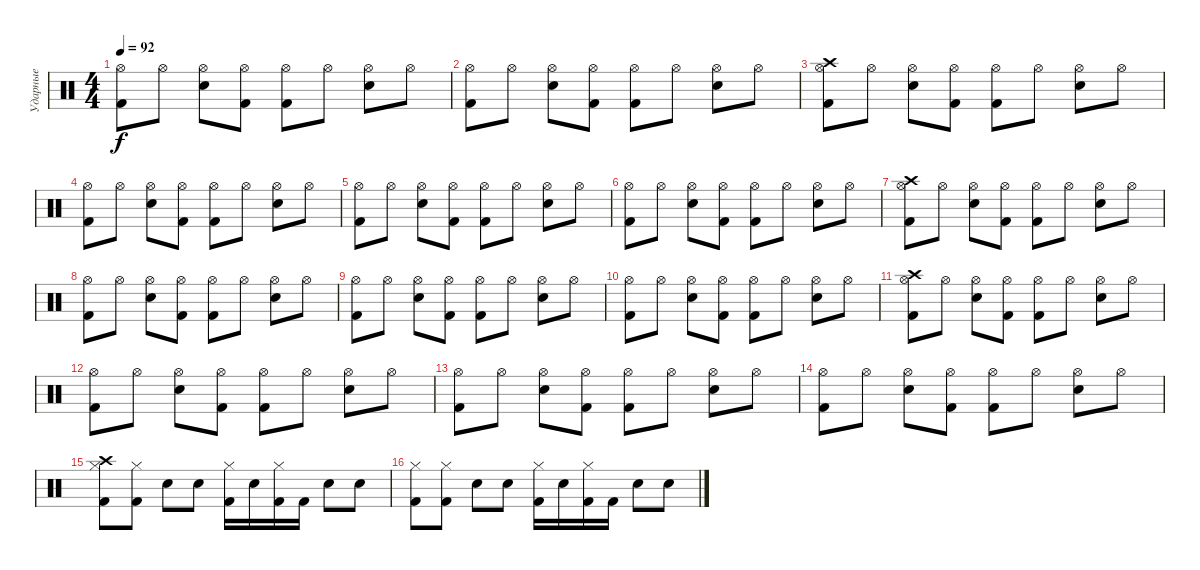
\track ("Ударные" "Ударные") {instrument percussion}
\staff {score}
\articulation defaults
\ts (4 4)
\tempo 92
\clef neutral
\ks c
("Kick (hit) 2" "Hi-Hat (open)").8{dy f} "Hi-Hat (open)".8 ("Electric Snare (hit)" "Hi-Hat (open)").8 ("Kick (hit) 2" "Hi-Hat (open)").8 ("Kick (hit) 2" "Hi-Hat (open)").8 "Hi-Hat (open)".8 ("Electric Snare (hit)" "Hi-Hat (open)").8 "Hi-Hat (open)".8 |
("Kick (hit) 2" "Hi-Hat (open)").8 "Hi-Hat (open)".8 ("Electric Snare (hit)" "Hi-Hat (open)").8 ("Kick (hit) 2" "Hi-Hat (open)").8 ("Kick (hit) 2" "Hi-Hat (open)").8 "Hi-Hat (open)".8 ("Electric Snare (hit)" "Hi-Hat (open)").8 "Hi-Hat (open)".8 |
("Kick (hit) 2" "Hi-Hat (open)" "Crash high (hit)").8 "Hi-Hat (open)".8 ("Electric Snare (hit)" "Hi-Hat (open)").8 ("Kick (hit) 2" "Hi-Hat (open)").8 ("Kick (hit) 2" "Hi-Hat (open)").8 "Hi-Hat (open)".8 ("Electric Snare (hit)" "Hi-Hat (open)").8 "Hi-Hat (open)".8 |
("Kick (hit) 2" "Hi-Hat (open)").8 "Hi-Hat (open)".8 ("Electric Snare (hit)" "Hi-Hat (open)").8 ("Kick (hit) 2" "Hi-Hat (open)").8 ("Kick (hit) 2" "Hi-Hat (open)").8 "Hi-Hat (open)".8 ("Electric Snare (hit)" "Hi-Hat (open)").8 "Hi-Hat (open)".8 |
("Kick (hit) 2" "Hi-Hat (open)").8 "Hi-Hat (open)".8 ("Electric Snare (hit)" "Hi-Hat (open)").8 ("Kick (hit) 2" "Hi-Hat (open)").8 ("Kick (hit) 2" "Hi-Hat (open)").8 "Hi-Hat (open)".8 ("Electric Snare (hit)" "Hi-Hat (open)").8 "Hi-Hat (open)".8 |
("Kick (hit) 2" "Hi-Hat (open)").8 "Hi-Hat (open)".8 ("Electric Snare (hit)" "Hi-Hat (open)").8 ("Kick (hit) 2" "Hi-Hat (open)").8 ("Kick (hit) 2" "Hi-Hat (open)").8 "Hi-Hat (open)".8 ("Electric Snare (hit)" "Hi-Hat (open)").8 "Hi-Hat (open)".8 |
("Kick (hit) 2" "Hi-Hat (open)" "Crash high (hit)").8 "Hi-Hat (open)".8 ("Electric Snare (hit)" "Hi-Hat (open)").8 ("Kick (hit) 2" "Hi-Hat (open)").8 ("Kick (hit) 2" "Hi-Hat (open)").8 "Hi-Hat (open)".8 ("Electric Snare (hit)" "Hi-Hat (open)").8 "Hi-Hat (open)".8 |
("Kick (hit) 2" "Hi-Hat (open)").8 "Hi-Hat (open)".8 ("Electric Snare (hit)" "Hi-Hat (open)").8 ("Kick (hit) 2" "Hi-Hat (open)").8 ("Kick (hit) 2" "Hi-Hat (open)").8 "Hi-Hat (open)".8 ("Electric Snare (hit)" "Hi-Hat (open)").8 "Hi-Hat (open)".8 |
("Kick (hit) 2" "Hi-Hat (open)").8 "Hi-Hat (open)".8 ("Electric Snare (hit)" "Hi-Hat (open)").8 ("Kick (hit) 2" "Hi-Hat (open)").8 ("Kick (hit) 2" "Hi-Hat (open)").8 "Hi-Hat (open)".8 ("Electric Snare (hit)" "Hi-Hat (open)").8 "Hi-Hat (open)".8 |
("Kick (hit) 2" "Hi-Hat (open)").8 "Hi-Hat (open)".8 ("Electric Snare (hit)" "Hi-Hat (open)").8 ("Kick (hit) 2" "Hi-Hat (open)").8 ("Kick (hit) 2" "Hi-Hat (open)").8 "Hi-Hat (open)".8 ("Electric Snare (hit)" "Hi-Hat (open)").8 "Hi-Hat (open)".8 |
("Kick (hit) 2" "Hi-Hat (open)" "Crash high (hit)").8 "Hi-Hat (open)".8 ("Electric Snare (hit)" "Hi-Hat (open)").8 ("Kick (hit) 2" "Hi-Hat (open)").8 ("Kick (hit) 2" "Hi-Hat (open)").8 "Hi-Hat (open)".8 ("Electric Snare (hit)" "Hi-Hat (open)").8 "Hi-Hat (open)".8 |
("Kick (hit) 2" "Hi-Hat (open)").8 "Hi-Hat (open)".8 ("Electric Snare (hit)" "Hi-Hat (open)").8 ("Kick (hit) 2" "Hi-Hat (open)").8 ("Kick (hit) 2" "Hi-Hat (open)").8 "Hi-Hat (open)".8 ("Electric Snare (hit)" "Hi-Hat (open)").8 "Hi-Hat (open)".8 |
("Kick (hit) 2" "Hi-Hat (open)").8 "Hi-Hat (open)".8 ("Electric Snare (hit)" "Hi-Hat (open)").8 ("Kick (hit) 2" "Hi-Hat (open)").8 ("Kick (hit) 2" "Hi-Hat (open)").8 "Hi-Hat (open)".8 ("Electric Snare (hit)" "Hi-Hat (open)").8 "Hi-Hat (open)".8 |
("Kick (hit) 2" "Hi-Hat (open)").8 "Hi-Hat (open)".8 ("Electric Snare (hit)" "Hi-Hat (open)").8 ("Kick (hit) 2" "Hi-Hat (open)").8 ("Kick (hit) 2" "Hi-Hat (open)").8 "Hi-Hat (open)".8 ("Electric Snare (hit)" "Hi-Hat (open)").8 "Hi-Hat (open)".8 |
("Crash high (hit)" "Kick (hit) 2" "Hi-Hat (closed)").8 ("Kick (hit) 2" "Hi-Hat (closed)").8 "Electric Snare (hit)".8 "Electric Snare (hit)".8 ("Kick (hit) 2" "Hi-Hat (closed)").16 "Electric Snare (hit)".16 ("Kick (hit) 2" "Hi-Hat (closed)").16 "Kick (hit) 2".16 "Electric Snare (hit)".8 "Electric Snare (hit)".8 |
("Kick (hit) 2" "Hi-Hat (closed)").8 ("Kick (hit) 2" "Hi-Hat (closed)").8 "Electric Snare (hit)".8 "Electric Snare (hit)".8 ("Kick (hit) 2" "Hi-Hat (closed)").16 "Electric Snare (hit)".16 ("Kick (hit) 2" "Hi-Hat (closed)").16 "Kick (hit) 2".16 "Electric Snare (hit)".8 "Electric Snare (hit)".8
